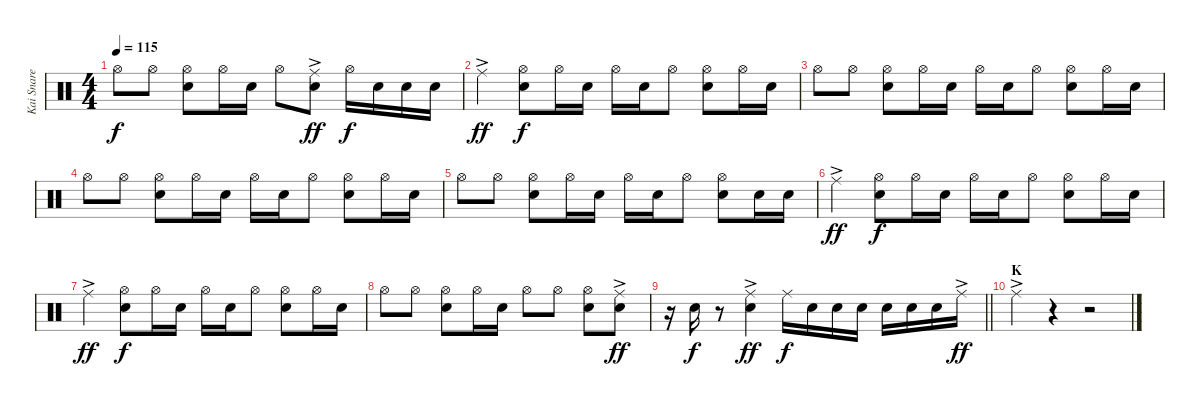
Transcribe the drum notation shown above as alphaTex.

\track ("Kai Snare" "Kai Snare") {instrument percussion}
\staff {score}
\articulation defaults
\ts (4 4)
\tempo 115
\clef neutral
\ks c "Hi-Hat (open)".8{dy f} "Hi-Hat (open)".8
("Hi-Hat (open)" "Snare (hit) 2").8 "Hi-Hat (open)".16 "Snare (hit) 2".16 "Hi-Hat (open)".8 ("Ride (middle)"{ac} "Snare (hit) 2").8{dy ff} "Hi-Hat (open)".16{dy f} "Snare (hit) 2".16 "Snare (hit) 2".16 "Snare (hit) 2".16 |
"Ride (middle)"{ac}.4{dy ff} ("Hi-Hat (open)" "Snare (hit) 2").8{dy f} "Hi-Hat (open)".16 "Snare (hit) 2".16 "Hi-Hat (open)".16 "Snare (hit) 2".16 "Hi-Hat (open)".8 ("Hi-Hat (open)" "Snare (hit) 2").8 "Hi-Hat (open)".16 "Snare (hit) 2".16 |
"Hi-Hat (open)".8 "Hi-Hat (open)".8 ("Hi-Hat (open)" "Snare (hit) 2").8 "Hi-Hat (open)".16 "Snare (hit) 2".16 "Hi-Hat (open)".16 "Snare (hit) 2".16 "Hi-Hat (open)".8 ("Hi-Hat (open)" "Snare (hit) 2").8 "Hi-Hat (open)".16 "Snare (hit) 2".16 |
"Hi-Hat (open)".8 "Hi-Hat (open)".8 ("Hi-Hat (open)" "Snare (hit) 2").8 "Hi-Hat (open)".16 "Snare (hit) 2".16 "Hi-Hat (open)".16 "Snare (hit) 2".16 "Hi-Hat (open)".8 ("Hi-Hat (open)" "Snare (hit) 2").8 "Hi-Hat (open)".16 "Snare (hit) 2".16 |
"Hi-Hat (open)".8 "Hi-Hat (open)".8 ("Hi-Hat (open)" "Snare (hit) 2").8 "Hi-Hat (open)".16 "Snare (hit) 2".16 "Hi-Hat (open)".16 "Snare (hit) 2".16 "Hi-Hat (open)".8 ("Hi-Hat (open)" "Snare (hit) 2").8 "Snare (hit) 2".16 "Snare (hit) 2".16 |
"Ride (middle)"{ac}.4{dy ff} ("Hi-Hat (open)" "Snare (hit) 2").8{dy f} "Hi-Hat (open)".16 "Snare (hit) 2".16 "Hi-Hat (open)".16 "Snare (hit) 2".16 "Hi-Hat (open)".8 ("Hi-Hat (open)" "Snare (hit) 2").8 "Hi-Hat (open)".16 "Snare (hit) 2".16 |
"Ride (middle)"{ac}.4{dy ff} ("Hi-Hat (open)" "Snare (hit) 2").8{dy f} "Hi-Hat (open)".16 "Snare (hit) 2".16 "Hi-Hat (open)".16 "Snare (hit) 2".16 "Hi-Hat (open)".8 ("Hi-Hat (open)" "Snare (hit) 2").8 "Hi-Hat (open)".16 "Snare (hit) 2".16 |
"Hi-Hat (open)".8 "Hi-Hat (open)".8 ("Hi-Hat (open)" "Snare (hit) 2").8 "Hi-Hat (open)".16 "Snare (hit) 2".16 "Hi-Hat (open)".8 "Hi-Hat (open)".8 ("Hi-Hat (open)" "Snare (hit) 2").8 ("Ride (middle)"{ac} "Snare (hit) 2").8{dy ff} |
\barLineRight lightlight
r.16 "Snare (hit) 2".16{dy f} r.8 ("Ride (middle)"{ac} "Snare (hit) 2").4{dy ff} "Ride (middle)".16{dy f} "Snare (hit) 2".16 "Snare (hit) 2".16 "Snare (hit) 2".16 "Snare (hit) 2".16 "Snare (hit) 2".16 "Snare (hit) 2".16 "Ride (middle)"{ac}.16{dy ff} |
\section ("" "K")
"Ride (middle)"{ac}.4 r.4 r.2
